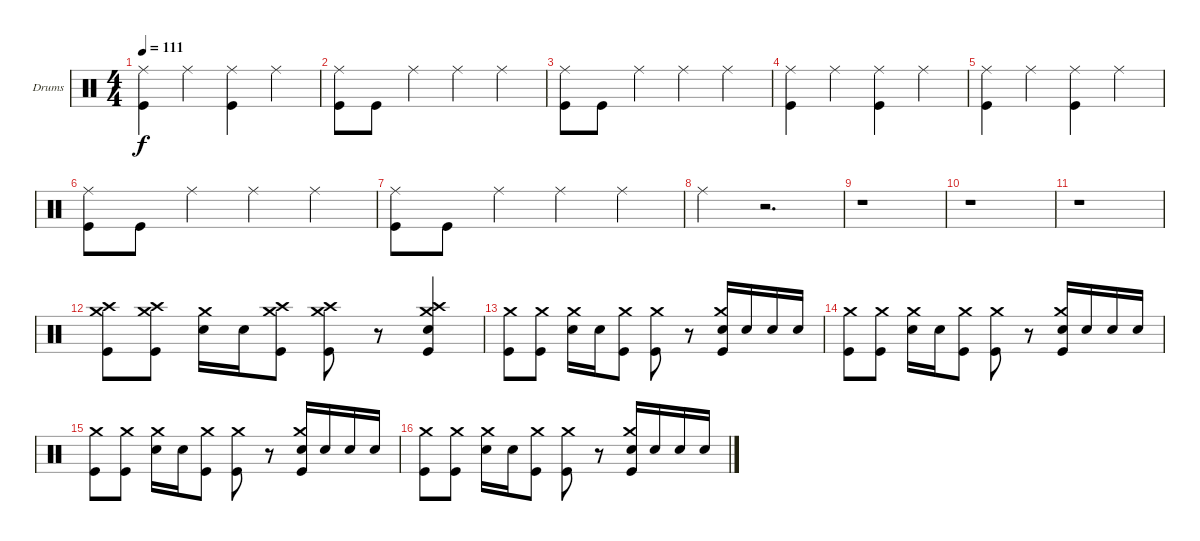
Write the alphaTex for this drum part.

\bracketExtendMode groupsimilarinstruments
\firstSystemTrackNameOrientation horizontal
\otherSystemsTrackNameOrientation horizontal
\track ("Drumkit" "Drums") {instrument percussion}
\staff {score}
\articulation defaults
\ts (4 4)
\tempo 111
\clef neutral
\ks c
("Ride (middle)" "Kick (hit)").4{dy f} "Ride (middle)".4 ("Ride (middle)" "Kick (hit)").4 "Ride (middle)".4 |
("Ride (middle)" "Kick (hit)").8 "Kick (hit)".8 "Ride (middle)".4 "Ride (middle)".4 "Ride (middle)".4 |
("Ride (middle)" "Kick (hit)").8 "Kick (hit)".8 "Ride (middle)".4 "Ride (middle)".4 "Ride (middle)".4 |
("Ride (middle)" "Kick (hit)").4 "Ride (middle)".4 ("Ride (middle)" "Kick (hit)").4 "Ride (middle)".4 |
("Ride (middle)" "Kick (hit)").4 "Ride (middle)".4 ("Ride (middle)" "Kick (hit)").4 "Ride (middle)".4 |
("Ride (middle)" "Kick (hit)").8 "Kick (hit)".8 "Ride (middle)".4 "Ride (middle)".4 "Ride (middle)".4 |
("Ride (middle)" "Kick (hit)").8 "Kick (hit)".8 "Ride (middle)".4 "Ride (middle)".4 "Ride (middle)".4 |
"Ride (middle)".4 r.2{d} |
r.1 |
r.1 |
r.1 |
("Crash medium (hit)" "Crash high (hit)" "Kick (hit)").8 ("Crash medium (hit)" "Crash high (hit)" "Kick (hit)").8 ("Crash medium (hit)" "Snare (hit) 2").16 "Snare (hit) 2".16 ("Crash medium (hit)" "Crash high (hit)" "Kick (hit)").8 ("Crash medium (hit)" "Crash high (hit)" "Kick (hit)").8 r.8 ("Crash medium (hit)" "Crash high (hit)" "Snare (hit) 2" "Kick (hit)").4 |
("Crash medium (hit)" "Kick (hit)").8 ("Crash medium (hit)" "Kick (hit)").8 ("Crash medium (hit)" "Snare (hit) 2").16 "Snare (hit) 2".16 ("Crash medium (hit)" "Kick (hit)").8 ("Crash medium (hit)" "Kick (hit)").8 r.8 ("Crash medium (hit)" "Snare (hit) 2" "Kick (hit)").16 "Snare (hit) 2".16 "Snare (hit) 2".16 "Snare (hit) 2".16 |
("Crash medium (hit)" "Kick (hit)").8 ("Crash medium (hit)" "Kick (hit)").8 ("Crash medium (hit)" "Snare (hit) 2").16 "Snare (hit) 2".16 ("Crash medium (hit)" "Kick (hit)").8 ("Crash medium (hit)" "Kick (hit)").8 r.8 ("Crash medium (hit)" "Snare (hit) 2" "Kick (hit)").16 "Snare (hit) 2".16 "Snare (hit) 2".16 "Snare (hit) 2".16 |
("Crash medium (hit)" "Kick (hit)").8 ("Crash medium (hit)" "Kick (hit)").8 ("Crash medium (hit)" "Snare (hit) 2").16 "Snare (hit) 2".16 ("Crash medium (hit)" "Kick (hit)").8 ("Crash medium (hit)" "Kick (hit)").8 r.8 ("Crash medium (hit)" "Snare (hit) 2" "Kick (hit)").16 "Snare (hit) 2".16 "Snare (hit) 2".16 "Snare (hit) 2".16 |
("Crash medium (hit)" "Kick (hit)").8 ("Crash medium (hit)" "Kick (hit)").8 ("Crash medium (hit)" "Snare (hit) 2").16 "Snare (hit) 2".16 ("Crash medium (hit)" "Kick (hit)").8 ("Crash medium (hit)" "Kick (hit)").8 r.8 ("Crash medium (hit)" "Snare (hit) 2" "Kick (hit)").16 "Snare (hit) 2".16 "Snare (hit) 2".16 "Snare (hit) 2".16
